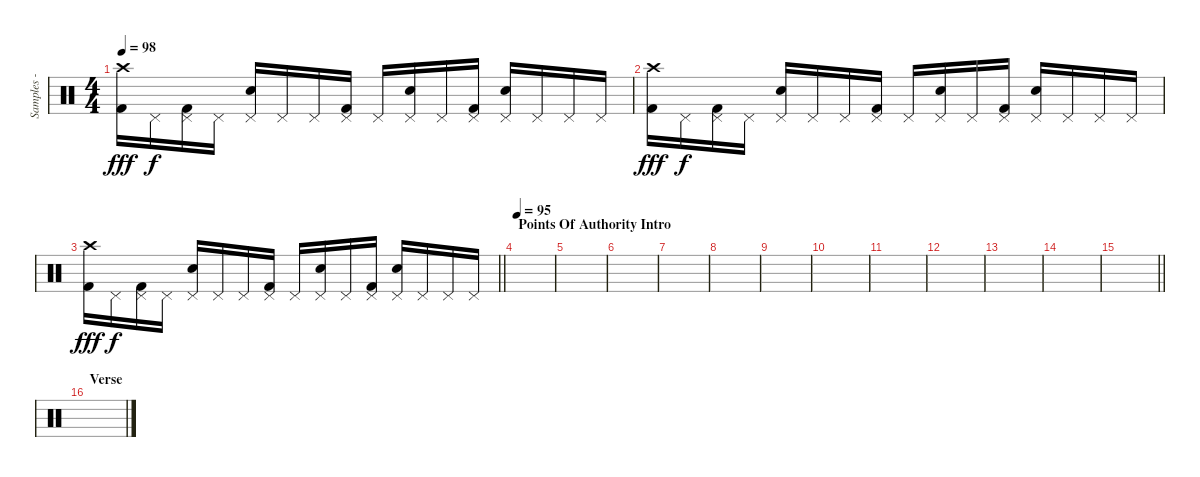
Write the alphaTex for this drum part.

\track ("Samples - Joe Hahn" "Samples - ") {instrument percussion}
\staff {score}
\articulation defaults
\ts (4 4)
\tempo 98
\clef neutral
\ks c
("Crash high (hit)" "Kick (hit) 2").16{dy fff volume 1} "Pedal Hi-Hat (hit)".16{dy f} ("Pedal Hi-Hat (hit)" "Kick (hit) 2").16 "Pedal Hi-Hat (hit)".16 ("Pedal Hi-Hat (hit)" "Snare (hit) 2").16 "Pedal Hi-Hat (hit)".16 "Pedal Hi-Hat (hit)".16 ("Pedal Hi-Hat (hit)" "Kick (hit) 2").16 "Pedal Hi-Hat (hit)".16 ("Pedal Hi-Hat (hit)" "Snare (hit) 2").16 "Pedal Hi-Hat (hit)".16 ("Pedal Hi-Hat (hit)" "Kick (hit) 2").16 ("Pedal Hi-Hat (hit)" "Snare (hit) 2").16 "Pedal Hi-Hat (hit)".16 "Pedal Hi-Hat (hit)".16 "Pedal Hi-Hat (hit)".16 |
("Crash high (hit)" "Kick (hit) 2").16{dy fff volume 0} "Pedal Hi-Hat (hit)".16{dy f} ("Pedal Hi-Hat (hit)" "Kick (hit) 2").16 "Pedal Hi-Hat (hit)".16 ("Pedal Hi-Hat (hit)" "Snare (hit) 2").16 "Pedal Hi-Hat (hit)".16 "Pedal Hi-Hat (hit)".16 ("Pedal Hi-Hat (hit)" "Kick (hit) 2").16 "Pedal Hi-Hat (hit)".16 ("Pedal Hi-Hat (hit)" "Snare (hit) 2").16 "Pedal Hi-Hat (hit)".16 ("Pedal Hi-Hat (hit)" "Kick (hit) 2").16 ("Pedal Hi-Hat (hit)" "Snare (hit) 2").16 "Pedal Hi-Hat (hit)".16 "Pedal Hi-Hat (hit)".16 "Pedal Hi-Hat (hit)".16 |
\barLineRight lightlight
("Crash high (hit)" "Kick (hit) 2").16{dy fff volume 0} "Pedal Hi-Hat (hit)".16{dy f} ("Pedal Hi-Hat (hit)" "Kick (hit) 2").16 "Pedal Hi-Hat (hit)".16 ("Pedal Hi-Hat (hit)" "Snare (hit) 2").16 "Pedal Hi-Hat (hit)".16 "Pedal Hi-Hat (hit)".16 ("Pedal Hi-Hat (hit)" "Kick (hit) 2").16 "Pedal Hi-Hat (hit)".16 ("Pedal Hi-Hat (hit)" "Snare (hit) 2").16 "Pedal Hi-Hat (hit)".16 ("Pedal Hi-Hat (hit)" "Kick (hit) 2").16 ("Pedal Hi-Hat (hit)" "Snare (hit) 2").16 "Pedal Hi-Hat (hit)".16 "Pedal Hi-Hat (hit)".16 "Pedal Hi-Hat (hit)".16 |
\section ("" "Points Of Authority Intro")
\tempo 95
|
|
|
|
|
|
|
|
|
|
|
\barLineRight lightlight
|
\section ("" "Verse")
